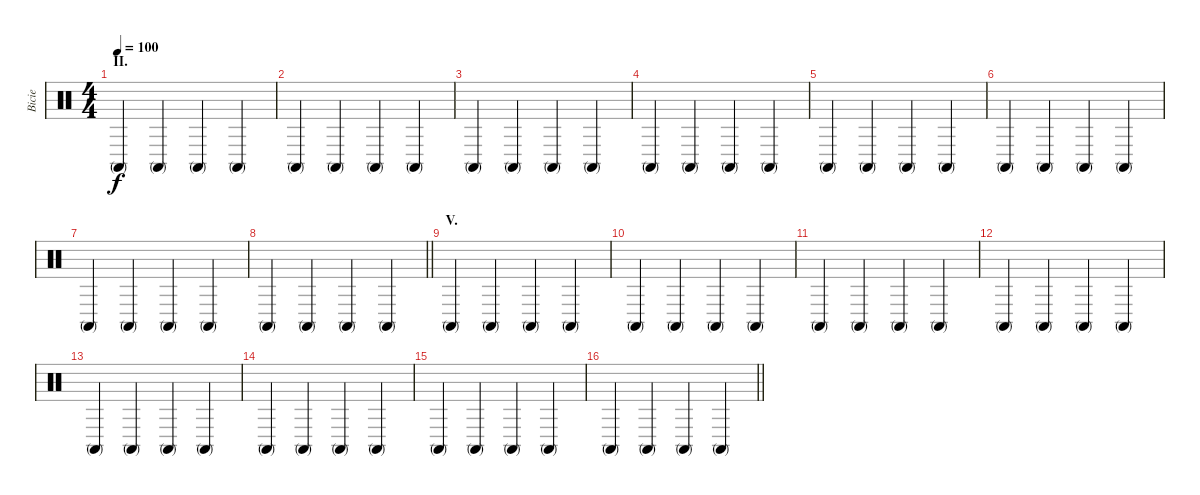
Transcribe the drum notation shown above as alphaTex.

\track ("Bicie" "Bicie") {instrument percussion}
\staff {score}
\articulation defaults
\ts (4 4)
\section ("" "II.")
\tempo 100
\clef neutral
\ks c "Conga high (mute)".4{dy f} "Conga high (mute)".4 "Conga high (mute)".4 "Conga high (mute)".4
|
"Conga high (mute)".4 "Conga high (mute)".4 "Conga high (mute)".4 "Conga high (mute)".4 |
"Conga high (mute)".4 "Conga high (mute)".4 "Conga high (mute)".4 "Conga high (mute)".4 |
"Conga high (mute)".4 "Conga high (mute)".4 "Conga high (mute)".4 "Conga high (mute)".4 |
"Conga high (mute)".4 "Conga high (mute)".4 "Conga high (mute)".4 "Conga high (mute)".4 |
"Conga high (mute)".4 "Conga high (mute)".4 "Conga high (mute)".4 "Conga high (mute)".4 |
"Conga high (mute)".4 "Conga high (mute)".4 "Conga high (mute)".4 "Conga high (mute)".4 |
\barLineRight lightlight "Conga high (mute)".4 "Conga high (mute)".4 "Conga high (mute)".4 "Conga high (mute)".4
|
\section ("" "V.")
"Conga high (mute)".4 "Conga high (mute)".4 "Conga high (mute)".4 "Conga high (mute)".4 |
"Conga high (mute)".4 "Conga high (mute)".4 "Conga high (mute)".4 "Conga high (mute)".4 |
"Conga high (mute)".4 "Conga high (mute)".4 "Conga high (mute)".4 "Conga high (mute)".4 |
"Conga high (mute)".4 "Conga high (mute)".4 "Conga high (mute)".4 "Conga high (mute)".4 |
"Conga high (mute)".4 "Conga high (mute)".4 "Conga high (mute)".4 "Conga high (mute)".4 |
"Conga high (mute)".4 "Conga high (mute)".4 "Conga high (mute)".4 "Conga high (mute)".4 |
"Conga high (mute)".4 "Conga high (mute)".4 "Conga high (mute)".4 "Conga high (mute)".4 |
\barLineRight lightlight "Conga high (mute)".4 "Conga high (mute)".4 "Conga high (mute)".4 "Conga high (mute)".4
